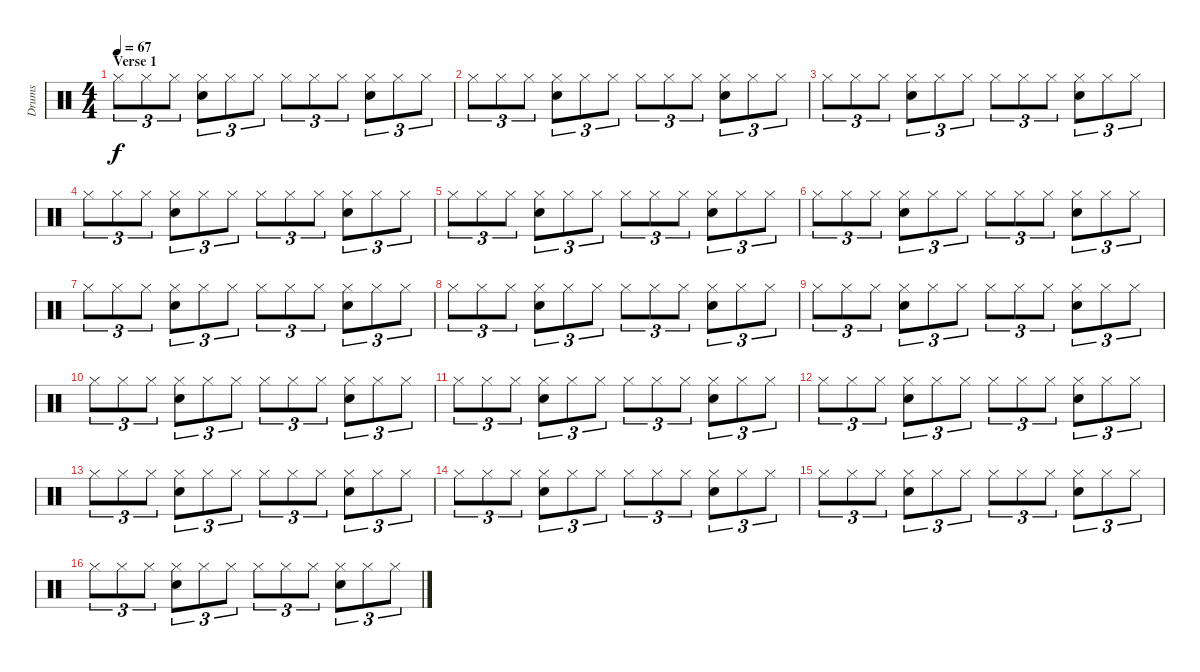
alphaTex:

\track ("Drums" "Drums") {instrument percussion}
\staff {score}
\articulation defaults
\ts (4 4)
\section ("" "Verse 1")
\tempo 67
\clef neutral
\ks c "Hi-Hat (closed)".8{tu (3 2) dy f} "Hi-Hat (closed)".8{tu (3 2)} "Hi-Hat (closed)".8{tu (3 2)}
("Hi-Hat (closed)" "Snare (hit) 2").8{tu (3 2)} "Hi-Hat (closed)".8{tu (3 2)} "Hi-Hat (closed)".8{tu (3 2)} "Hi-Hat (closed)".8{tu (3 2)} "Hi-Hat (closed)".8{tu (3 2)} "Hi-Hat (closed)".8{tu (3 2)} ("Hi-Hat (closed)" "Snare (hit) 2").8{tu (3 2)} "Hi-Hat (closed)".8{tu (3 2)} "Hi-Hat (closed)".8{tu (3 2)} |
"Hi-Hat (closed)".8{tu (3 2)} "Hi-Hat (closed)".8{tu (3 2)} "Hi-Hat (closed)".8{tu (3 2)} ("Hi-Hat (closed)" "Snare (hit) 2").8{tu (3 2)} "Hi-Hat (closed)".8{tu (3 2)} "Hi-Hat (closed)".8{tu (3 2)} "Hi-Hat (closed)".8{tu (3 2)} "Hi-Hat (closed)".8{tu (3 2)} "Hi-Hat (closed)".8{tu (3 2)} ("Hi-Hat (closed)" "Snare (hit) 2").8{tu (3 2)} "Hi-Hat (closed)".8{tu (3 2)} "Hi-Hat (closed)".8{tu (3 2)} |
"Hi-Hat (closed)".8{tu (3 2)} "Hi-Hat (closed)".8{tu (3 2)} "Hi-Hat (closed)".8{tu (3 2)} ("Hi-Hat (closed)" "Snare (hit) 2").8{tu (3 2)} "Hi-Hat (closed)".8{tu (3 2)} "Hi-Hat (closed)".8{tu (3 2)} "Hi-Hat (closed)".8{tu (3 2)} "Hi-Hat (closed)".8{tu (3 2)} "Hi-Hat (closed)".8{tu (3 2)} ("Hi-Hat (closed)" "Snare (hit) 2").8{tu (3 2)} "Hi-Hat (closed)".8{tu (3 2)} "Hi-Hat (closed)".8{tu (3 2)} |
"Hi-Hat (closed)".8{tu (3 2)} "Hi-Hat (closed)".8{tu (3 2)} "Hi-Hat (closed)".8{tu (3 2)} ("Hi-Hat (closed)" "Snare (hit) 2").8{tu (3 2)} "Hi-Hat (closed)".8{tu (3 2)} "Hi-Hat (closed)".8{tu (3 2)} "Hi-Hat (closed)".8{tu (3 2)} "Hi-Hat (closed)".8{tu (3 2)} "Hi-Hat (closed)".8{tu (3 2)} ("Hi-Hat (closed)" "Snare (hit) 2").8{tu (3 2)} "Hi-Hat (closed)".8{tu (3 2)} "Hi-Hat (closed)".8{tu (3 2)} |
"Hi-Hat (closed)".8{tu (3 2)} "Hi-Hat (closed)".8{tu (3 2)} "Hi-Hat (closed)".8{tu (3 2)} ("Hi-Hat (closed)" "Snare (hit) 2").8{tu (3 2)} "Hi-Hat (closed)".8{tu (3 2)} "Hi-Hat (closed)".8{tu (3 2)} "Hi-Hat (closed)".8{tu (3 2)} "Hi-Hat (closed)".8{tu (3 2)} "Hi-Hat (closed)".8{tu (3 2)} ("Hi-Hat (closed)" "Snare (hit) 2").8{tu (3 2)} "Hi-Hat (closed)".8{tu (3 2)} "Hi-Hat (closed)".8{tu (3 2)} |
"Hi-Hat (closed)".8{tu (3 2)} "Hi-Hat (closed)".8{tu (3 2)} "Hi-Hat (closed)".8{tu (3 2)} ("Hi-Hat (closed)" "Snare (hit) 2").8{tu (3 2)} "Hi-Hat (closed)".8{tu (3 2)} "Hi-Hat (closed)".8{tu (3 2)} "Hi-Hat (closed)".8{tu (3 2)} "Hi-Hat (closed)".8{tu (3 2)} "Hi-Hat (closed)".8{tu (3 2)} ("Hi-Hat (closed)" "Snare (hit) 2").8{tu (3 2)} "Hi-Hat (closed)".8{tu (3 2)} "Hi-Hat (closed)".8{tu (3 2)} |
"Hi-Hat (closed)".8{tu (3 2)} "Hi-Hat (closed)".8{tu (3 2)} "Hi-Hat (closed)".8{tu (3 2)} ("Hi-Hat (closed)" "Snare (hit) 2").8{tu (3 2)} "Hi-Hat (closed)".8{tu (3 2)} "Hi-Hat (closed)".8{tu (3 2)} "Hi-Hat (closed)".8{tu (3 2)} "Hi-Hat (closed)".8{tu (3 2)} "Hi-Hat (closed)".8{tu (3 2)} ("Hi-Hat (closed)" "Snare (hit) 2").8{tu (3 2)} "Hi-Hat (closed)".8{tu (3 2)} "Hi-Hat (closed)".8{tu (3 2)} |
"Hi-Hat (closed)".8{tu (3 2)} "Hi-Hat (closed)".8{tu (3 2)} "Hi-Hat (closed)".8{tu (3 2)} ("Hi-Hat (closed)" "Snare (hit) 2").8{tu (3 2)} "Hi-Hat (closed)".8{tu (3 2)} "Hi-Hat (closed)".8{tu (3 2)} "Hi-Hat (closed)".8{tu (3 2)} "Hi-Hat (closed)".8{tu (3 2)} "Hi-Hat (closed)".8{tu (3 2)} ("Hi-Hat (closed)" "Snare (hit) 2").8{tu (3 2)} "Hi-Hat (closed)".8{tu (3 2)} "Hi-Hat (closed)".8{tu (3 2)} |
"Hi-Hat (closed)".8{tu (3 2)} "Hi-Hat (closed)".8{tu (3 2)} "Hi-Hat (closed)".8{tu (3 2)} ("Hi-Hat (closed)" "Snare (hit) 2").8{tu (3 2)} "Hi-Hat (closed)".8{tu (3 2)} "Hi-Hat (closed)".8{tu (3 2)} "Hi-Hat (closed)".8{tu (3 2)} "Hi-Hat (closed)".8{tu (3 2)} "Hi-Hat (closed)".8{tu (3 2)} ("Hi-Hat (closed)" "Snare (hit) 2").8{tu (3 2)} "Hi-Hat (closed)".8{tu (3 2)} "Hi-Hat (closed)".8{tu (3 2)} |
"Hi-Hat (closed)".8{tu (3 2)} "Hi-Hat (closed)".8{tu (3 2)} "Hi-Hat (closed)".8{tu (3 2)} ("Hi-Hat (closed)" "Snare (hit) 2").8{tu (3 2)} "Hi-Hat (closed)".8{tu (3 2)} "Hi-Hat (closed)".8{tu (3 2)} "Hi-Hat (closed)".8{tu (3 2)} "Hi-Hat (closed)".8{tu (3 2)} "Hi-Hat (closed)".8{tu (3 2)} ("Hi-Hat (closed)" "Snare (hit) 2").8{tu (3 2)} "Hi-Hat (closed)".8{tu (3 2)} "Hi-Hat (closed)".8{tu (3 2)} |
"Hi-Hat (closed)".8{tu (3 2)} "Hi-Hat (closed)".8{tu (3 2)} "Hi-Hat (closed)".8{tu (3 2)} ("Hi-Hat (closed)" "Snare (hit) 2").8{tu (3 2)} "Hi-Hat (closed)".8{tu (3 2)} "Hi-Hat (closed)".8{tu (3 2)} "Hi-Hat (closed)".8{tu (3 2)} "Hi-Hat (closed)".8{tu (3 2)} "Hi-Hat (closed)".8{tu (3 2)} ("Hi-Hat (closed)" "Snare (hit) 2").8{tu (3 2)} "Hi-Hat (closed)".8{tu (3 2)} "Hi-Hat (closed)".8{tu (3 2)} |
"Hi-Hat (closed)".8{tu (3 2)} "Hi-Hat (closed)".8{tu (3 2)} "Hi-Hat (closed)".8{tu (3 2)} ("Hi-Hat (closed)" "Snare (hit) 2").8{tu (3 2)} "Hi-Hat (closed)".8{tu (3 2)} "Hi-Hat (closed)".8{tu (3 2)} "Hi-Hat (closed)".8{tu (3 2)} "Hi-Hat (closed)".8{tu (3 2)} "Hi-Hat (closed)".8{tu (3 2)} ("Hi-Hat (closed)" "Snare (hit) 2").8{tu (3 2)} "Hi-Hat (closed)".8{tu (3 2)} "Hi-Hat (closed)".8{tu (3 2)} |
"Hi-Hat (closed)".8{tu (3 2)} "Hi-Hat (closed)".8{tu (3 2)} "Hi-Hat (closed)".8{tu (3 2)} ("Hi-Hat (closed)" "Snare (hit) 2").8{tu (3 2)} "Hi-Hat (closed)".8{tu (3 2)} "Hi-Hat (closed)".8{tu (3 2)} "Hi-Hat (closed)".8{tu (3 2)} "Hi-Hat (closed)".8{tu (3 2)} "Hi-Hat (closed)".8{tu (3 2)} ("Hi-Hat (closed)" "Snare (hit) 2").8{tu (3 2)} "Hi-Hat (closed)".8{tu (3 2)} "Hi-Hat (closed)".8{tu (3 2)} |
"Hi-Hat (closed)".8{tu (3 2)} "Hi-Hat (closed)".8{tu (3 2)} "Hi-Hat (closed)".8{tu (3 2)} ("Hi-Hat (closed)" "Snare (hit) 2").8{tu (3 2)} "Hi-Hat (closed)".8{tu (3 2)} "Hi-Hat (closed)".8{tu (3 2)} "Hi-Hat (closed)".8{tu (3 2)} "Hi-Hat (closed)".8{tu (3 2)} "Hi-Hat (closed)".8{tu (3 2)} ("Hi-Hat (closed)" "Snare (hit) 2").8{tu (3 2)} "Hi-Hat (closed)".8{tu (3 2)} "Hi-Hat (closed)".8{tu (3 2)} |
"Hi-Hat (closed)".8{tu (3 2)} "Hi-Hat (closed)".8{tu (3 2)} "Hi-Hat (closed)".8{tu (3 2)} ("Hi-Hat (closed)" "Snare (hit) 2").8{tu (3 2)} "Hi-Hat (closed)".8{tu (3 2)} "Hi-Hat (closed)".8{tu (3 2)} "Hi-Hat (closed)".8{tu (3 2)} "Hi-Hat (closed)".8{tu (3 2)} "Hi-Hat (closed)".8{tu (3 2)} ("Hi-Hat (closed)" "Snare (hit) 2").8{tu (3 2)} "Hi-Hat (closed)".8{tu (3 2)} "Hi-Hat (closed)".8{tu (3 2)} |
"Hi-Hat (closed)".8{tu (3 2)} "Hi-Hat (closed)".8{tu (3 2)} "Hi-Hat (closed)".8{tu (3 2)} ("Hi-Hat (closed)" "Snare (hit) 2").8{tu (3 2)} "Hi-Hat (closed)".8{tu (3 2)} "Hi-Hat (closed)".8{tu (3 2)} "Hi-Hat (closed)".8{tu (3 2)} "Hi-Hat (closed)".8{tu (3 2)} "Hi-Hat (closed)".8{tu (3 2)} ("Hi-Hat (closed)" "Snare (hit) 2").8{tu (3 2)} "Hi-Hat (closed)".8{tu (3 2)} "Hi-Hat (closed)".8{tu (3 2)}
